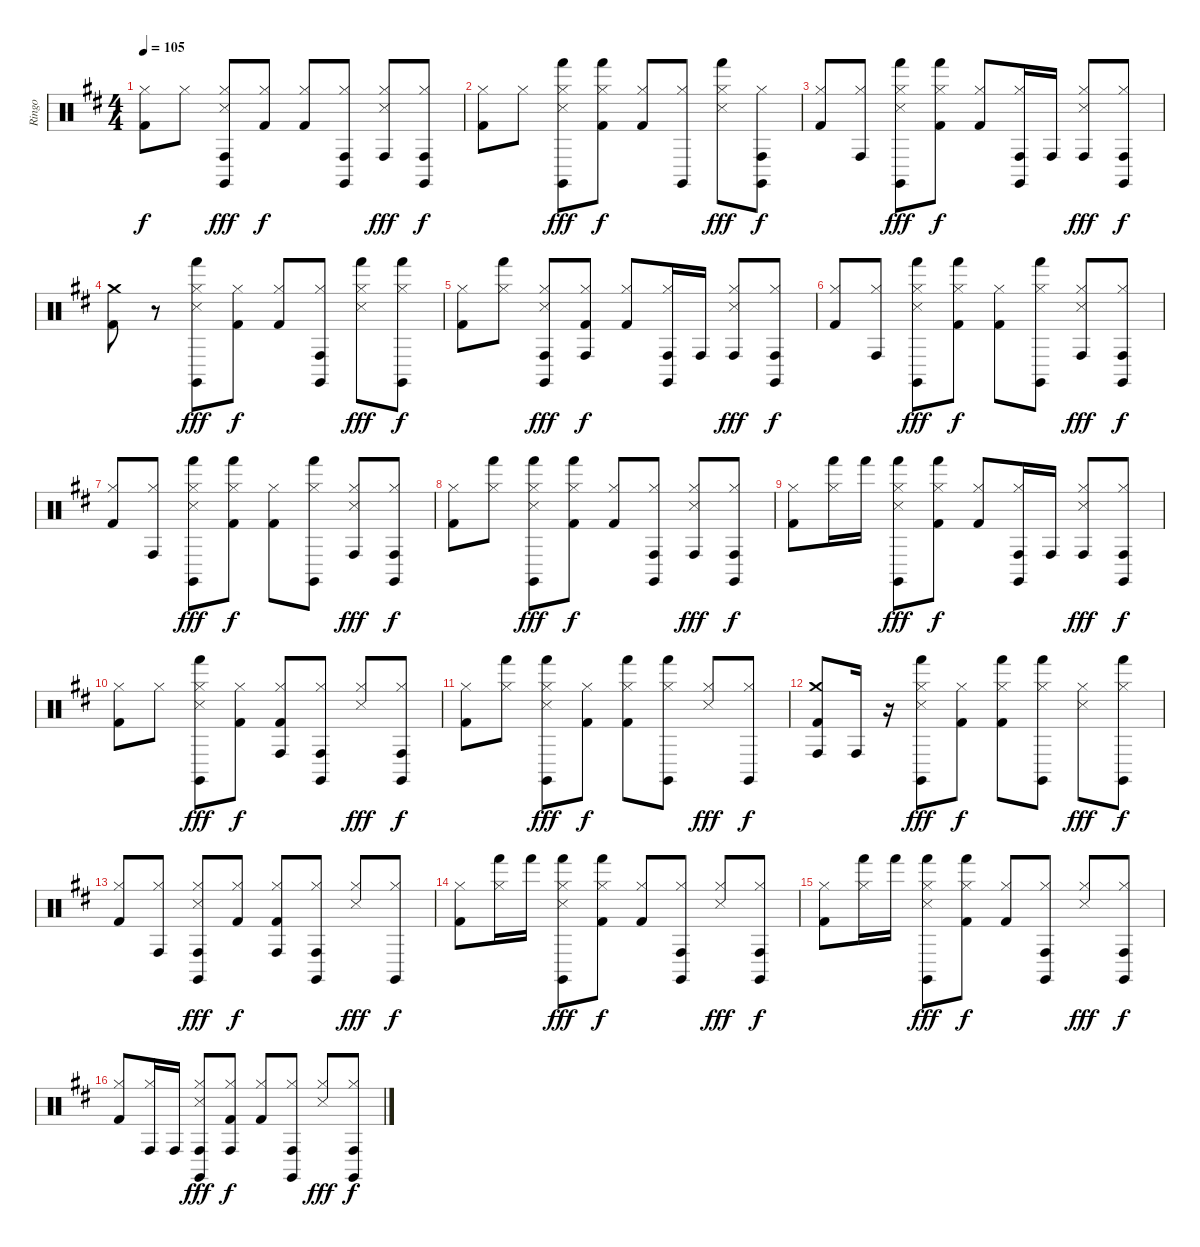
\track ("Ringo" "Ringo") {solo instrument percussion}
\staff {score}
\articulation defaults
\ts (4 4)
\tempo 105
\clef neutral
\ks d
("Kick (hit) 2" "Hi-Hat (closed)").8{dy f} "Hi-Hat (closed)".8 ("Claves (hit)" "Snare (side stick) 3" "Conga high (hit)" "Hi-Hat (closed)").8{dy fff} ("Hi-Hat (closed)" "Kick (hit) 2").8{dy f} ("Kick (hit) 2" "Hi-Hat (closed)").8 ("Conga high (hit)" "Claves (hit)" "Hi-Hat (closed)").8 ("Snare (side stick) 3" "Hi-Hat (closed)" "Conga high (hit)").8{dy fff} ("Hi-Hat (closed)" "Conga high (hit)" "Claves (hit)").8{dy f} |
("Kick (hit) 2" "Hi-Hat (closed)").8 "Hi-Hat (closed)".8 ("Hi-Hat (closed)" "Hand (hit)" "Claves (hit)" "Snare (side stick) 3").8{dy fff} ("Hi-Hat (closed)" "Hand (hit)" "Kick (hit) 2").8{dy f} ("Hi-Hat (closed)" "Kick (hit) 2").8 ("Claves (hit)" "Hi-Hat (closed)").8 ("Hand (hit)" "Hi-Hat (closed)" "Snare (side stick) 3").8{dy fff} ("Claves (hit)" "Hi-Hat (closed)" "Conga high (hit)").8{dy f} |
("Hi-Hat (closed)" "Kick (hit) 2").8 ("Conga high (hit)" "Hi-Hat (closed)").8 ("Hi-Hat (closed)" "Hand (hit)" "Snare (side stick) 3" "Claves (hit)").8{dy fff} ("Hi-Hat (closed)" "Hand (hit)" "Kick (hit) 2").8{dy f} ("Kick (hit) 2" "Hi-Hat (closed)").8 ("Claves (hit)" "Hi-Hat (closed)" "Conga high (hit)").16 "Conga high (hit)".16 ("Hi-Hat (closed)" "Snare (side stick) 3" "Conga high (hit)").8{dy fff} ("Conga high (hit)" "Hi-Hat (closed)" "Claves (hit)").8{dy f} |
("Crash medium (hit)" "Kick (hit) 2").8 r.8 ("Claves (hit)" "Hand (hit)" "Snare (side stick) 3" "Hi-Hat (closed)").8{dy fff} ("Hi-Hat (closed)" "Kick (hit) 2").8{dy f} ("Kick (hit) 2" "Hi-Hat (closed)").8 ("Conga high (hit)" "Hi-Hat (closed)" "Claves (hit)").8 ("Hand (hit)" "Snare (side stick) 3" "Hi-Hat (closed)").8{dy fff} ("Hand (hit)" "Hi-Hat (closed)" "Claves (hit)").8{dy f} |
("Kick (hit) 2" "Hi-Hat (closed)").8 ("Hi-Hat (closed)" "Hand (hit)").8 ("Hi-Hat (closed)" "Claves (hit)" "Conga high (hit)" "Snare (side stick) 3").8{dy fff} ("Hi-Hat (closed)" "Kick (hit) 2" "Conga high (hit)").8{dy f} ("Hi-Hat (closed)" "Kick (hit) 2").8 ("Conga high (hit)" "Claves (hit)" "Hi-Hat (closed)").16 "Conga high (hit)".16 ("Snare (side stick) 3" "Hi-Hat (closed)" "Conga high (hit)").8{dy fff} ("Hi-Hat (closed)" "Conga high (hit)" "Claves (hit)").8{dy f} |
("Kick (hit) 2" "Hi-Hat (closed)").8 ("Conga high (hit)" "Hi-Hat (closed)").8 ("Snare (side stick) 3" "Hand (hit)" "Claves (hit)" "Hi-Hat (closed)").8{dy fff} ("Hand (hit)" "Hi-Hat (closed)" "Kick (hit) 2").8{dy f} ("Kick (hit) 2" "Hi-Hat (closed)").8 ("Claves (hit)" "Hi-Hat (closed)" "Hand (hit)").8 ("Hi-Hat (closed)" "Conga high (hit)" "Snare (side stick) 3").8{dy fff} ("Hi-Hat (closed)" "Conga high (hit)" "Claves (hit)").8{dy f} |
("Hi-Hat (closed)" "Kick (hit) 2").8 ("Conga high (hit)" "Hi-Hat (closed)").8 ("Hi-Hat (closed)" "Hand (hit)" "Claves (hit)" "Snare (side stick) 3").8{dy fff} ("Hand (hit)" "Hi-Hat (closed)" "Kick (hit) 2").8{dy f} ("Hi-Hat (closed)" "Kick (hit) 2").8 ("Claves (hit)" "Hi-Hat (closed)" "Hand (hit)").8 ("Hi-Hat (closed)" "Snare (side stick) 3" "Conga high (hit)").8{dy fff} ("Conga high (hit)" "Hi-Hat (closed)" "Claves (hit)").8{dy f} |
("Hi-Hat (closed)" "Kick (hit) 2").8 ("Hi-Hat (closed)" "Hand (hit)").8 ("Hand (hit)" "Snare (side stick) 3" "Claves (hit)" "Hi-Hat (closed)").8{dy fff} ("Hi-Hat (closed)" "Kick (hit) 2" "Hand (hit)").8{dy f} ("Kick (hit) 2" "Hi-Hat (closed)").8 ("Conga high (hit)" "Claves (hit)" "Hi-Hat (closed)").8 ("Snare (side stick) 3" "Conga high (hit)" "Hi-Hat (closed)").8{dy fff} ("Hi-Hat (closed)" "Claves (hit)" "Conga high (hit)").8{dy f} |
("Hi-Hat (closed)" "Kick (hit) 2").8 ("Hi-Hat (closed)" "Hand (hit)").16 "Hand (hit)".16 ("Snare (side stick) 3" "Hi-Hat (closed)" "Hand (hit)" "Claves (hit)").8{dy fff} ("Hi-Hat (closed)" "Hand (hit)" "Kick (hit) 2").8{dy f} ("Hi-Hat (closed)" "Kick (hit) 2").8 ("Conga high (hit)" "Claves (hit)" "Hi-Hat (closed)").16 "Conga high (hit)".16 ("Hi-Hat (closed)" "Conga high (hit)" "Snare (side stick) 3").8{dy fff} ("Hi-Hat (closed)" "Conga high (hit)" "Claves (hit)").8{dy f} |
("Kick (hit) 2" "Hi-Hat (closed)").8 "Hi-Hat (closed)".8 ("Snare (side stick) 3" "Hand (hit)" "Claves (hit)" "Hi-Hat (closed)").8{dy fff} ("Hi-Hat (closed)" "Kick (hit) 2").8{dy f} ("Kick (hit) 2" "Conga high (hit)" "Hi-Hat (closed)").8 ("Conga high (hit)" "Claves (hit)" "Hi-Hat (closed)").8 ("Hi-Hat (closed)" "Snare (side stick) 3").8{dy fff} ("Hi-Hat (closed)" "Conga high (hit)" "Claves (hit)").8{dy f} |
("Hi-Hat (closed)" "Kick (hit) 2").8 ("Hi-Hat (closed)" "Hand (hit)").8 ("Claves (hit)" "Hand (hit)" "Hi-Hat (closed)" "Snare (side stick) 3").8{dy fff} ("Kick (hit) 2" "Hi-Hat (closed)").8{dy f} ("Hi-Hat (closed)" "Hand (hit)" "Kick (hit) 2").8 ("Hand (hit)" "Claves (hit)" "Hi-Hat (closed)").8 ("Snare (side stick) 3" "Hi-Hat (closed)").8{dy fff} ("Claves (hit)" "Hi-Hat (closed)").8{dy f} |
("Kick (hit) 2" "Crash medium (hit)" "Conga high (hit)").8 "Conga high (hit)".16 r.16 ("Snare (side stick) 3" "Claves (hit)" "Hand (hit)" "Hi-Hat (closed)").8{dy fff} ("Kick (hit) 2" "Hi-Hat (closed)").8{dy f} ("Kick (hit) 2" "Hi-Hat (closed)" "Hand (hit)").8 ("Hand (hit)" "Hi-Hat (closed)" "Claves (hit)").8 ("Snare (side stick) 3" "Hi-Hat (closed)").8{dy fff} ("Claves (hit)" "Hi-Hat (closed)" "Hand (hit)").8{dy f} |
("Hi-Hat (closed)" "Kick (hit) 2").8 ("Hi-Hat (closed)" "Conga high (hit)").8 ("Snare (side stick) 3" "Claves (hit)" "Conga high (hit)" "Hi-Hat (closed)").8{dy fff} ("Hi-Hat (closed)" "Kick (hit) 2").8{dy f} ("Kick (hit) 2" "Conga high (hit)" "Hi-Hat (closed)").8 ("Conga high (hit)" "Claves (hit)" "Hi-Hat (closed)").8 ("Snare (side stick) 3" "Hi-Hat (closed)").8{dy fff} ("Hi-Hat (closed)" "Claves (hit)").8{dy f} |
("Kick (hit) 2" "Hi-Hat (closed)").8 ("Hi-Hat (closed)" "Hand (hit)").16 "Hand (hit)".16 ("Hand (hit)" "Claves (hit)" "Hi-Hat (closed)" "Snare (side stick) 3").8{dy fff} ("Kick (hit) 2" "Hi-Hat (closed)" "Hand (hit)").8{dy f} ("Kick (hit) 2" "Hi-Hat (closed)").8 ("Hi-Hat (closed)" "Conga high (hit)" "Claves (hit)").8 ("Hi-Hat (closed)" "Snare (side stick) 3").8{dy fff} ("Hi-Hat (closed)" "Conga high (hit)" "Claves (hit)").8{dy f} |
("Hi-Hat (closed)" "Kick (hit) 2").8 ("Hand (hit)" "Hi-Hat (closed)").16 "Hand (hit)".16 ("Snare (side stick) 3" "Hand (hit)" "Claves (hit)" "Hi-Hat (closed)").8{dy fff} ("Hi-Hat (closed)" "Hand (hit)" "Kick (hit) 2").8{dy f} ("Kick (hit) 2" "Hi-Hat (closed)").8 ("Conga high (hit)" "Claves (hit)" "Hi-Hat (closed)").8 ("Hi-Hat (closed)" "Snare (side stick) 3").8{dy fff} ("Conga high (hit)" "Claves (hit)" "Hi-Hat (closed)").8{dy f} |
("Hi-Hat (closed)" "Kick (hit) 2").8 ("Conga high (hit)" "Hi-Hat (closed)").16 "Conga high (hit)".16 ("Hi-Hat (closed)" "Claves (hit)" "Conga high (hit)" "Snare (side stick) 3").8{dy fff} ("Hi-Hat (closed)" "Kick (hit) 2" "Conga high (hit)").8{dy f} ("Hi-Hat (closed)" "Kick (hit) 2").8 ("Conga high (hit)" "Claves (hit)" "Hi-Hat (closed)").8 ("Snare (side stick) 3" "Hi-Hat (closed)").8{dy fff} ("Claves (hit)" "Conga high (hit)" "Hi-Hat (closed)").8{dy f}
